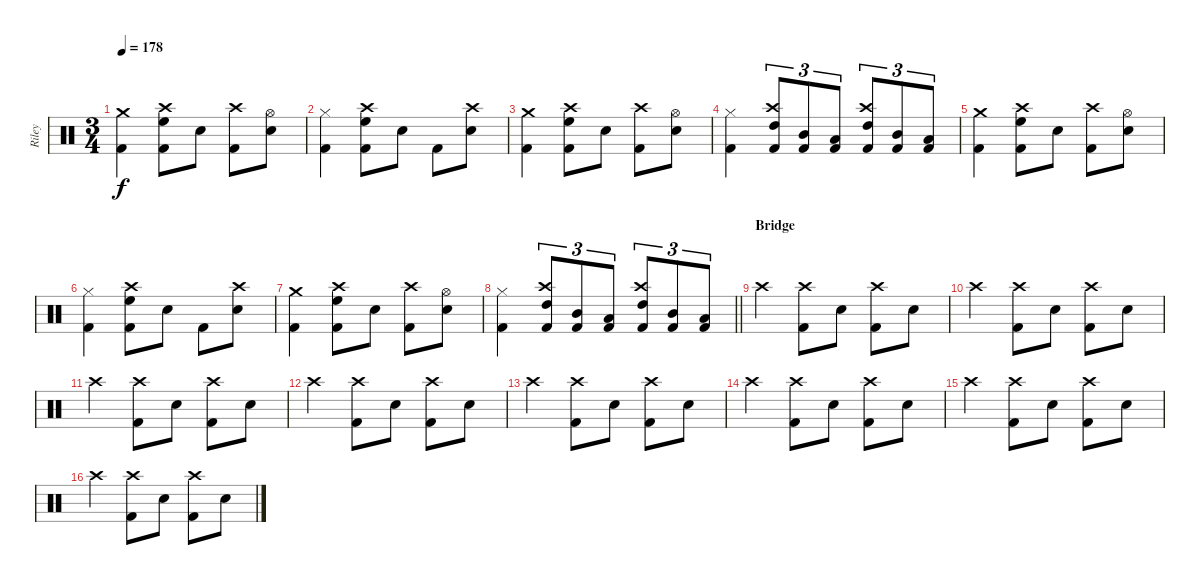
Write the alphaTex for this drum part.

\track ("Riley" "Riley") {instrument percussion}
\staff {score}
\articulation defaults
\ts (3 4)
\tempo 178
\clef neutral
\ks c
("Crash medium (hit)" "Kick (hit) 2").4{dy f} ("Crash high (hit)" "High Floor Tom (hit)" "Kick (hit) 2").8 "Snare (hit) 2".8 ("Crash high (hit)" "Kick (hit) 2").8 ("Hi-Hat (open)" "Snare (hit) 2").8 |
("Hi-Hat (closed)" "Kick (hit) 2").4 ("Crash high (hit)" "High Floor Tom (hit)" "Kick (hit) 2").8 "Snare (hit) 2".8 "Kick (hit) 2".8 ("Crash high (hit)" "Snare (hit) 2").8 |
("Crash medium (hit)" "Kick (hit) 2").4 ("Crash high (hit)" "High Floor Tom (hit)" "Kick (hit) 2").8 "Snare (hit) 2".8 ("Crash high (hit)" "Kick (hit) 2").8 ("Hi-Hat (open)" "Snare (hit) 2").8 |
("Hi-Hat (closed)" "Kick (hit) 2").4 ("Crash high (hit)" "High Tom (hit)" "Kick (hit) 2").8{tu (3 2)} ("Mid Tom (hit)" "Kick (hit) 2").8{tu (3 2)} ("Low Tom (hit)" "Kick (hit) 2").8{tu (3 2)} ("Crash high (hit)" "High Tom (hit)" "Kick (hit) 2").8{tu (3 2)} ("Mid Tom (hit)" "Kick (hit) 2").8{tu (3 2)} ("Low Tom (hit)" "Kick (hit) 2").8{tu (3 2)} |
("Crash medium (hit)" "Kick (hit) 2").4 ("Crash high (hit)" "High Floor Tom (hit)" "Kick (hit) 2").8 "Snare (hit) 2".8 ("Crash high (hit)" "Kick (hit) 2").8 ("Hi-Hat (open)" "Snare (hit) 2").8 |
("Hi-Hat (closed)" "Kick (hit) 2").4 ("Crash high (hit)" "High Floor Tom (hit)" "Kick (hit) 2").8 "Snare (hit) 2".8 "Kick (hit) 2".8 ("Crash high (hit)" "Snare (hit) 2").8 |
("Crash medium (hit)" "Kick (hit) 2").4 ("Crash high (hit)" "High Floor Tom (hit)" "Kick (hit) 2").8 "Snare (hit) 2".8 ("Crash high (hit)" "Kick (hit) 2").8 ("Hi-Hat (open)" "Snare (hit) 2").8 |
\barLineRight lightlight
("Hi-Hat (closed)" "Kick (hit) 2").4 ("Crash high (hit)" "High Tom (hit)" "Kick (hit) 2").8{tu (3 2)} ("Mid Tom (hit)" "Kick (hit) 2").8{tu (3 2)} ("Low Tom (hit)" "Kick (hit) 2").8{tu (3 2)} ("Crash high (hit)" "High Tom (hit)" "Kick (hit) 2").8{tu (3 2)} ("Mid Tom (hit)" "Kick (hit) 2").8{tu (3 2)} ("Low Tom (hit)" "Kick (hit) 2").8{tu (3 2)} |
\section ("" "Bridge")
"Crash high (hit)".4 ("Crash high (hit)" "Kick (hit) 2").8 "Snare (hit) 2".8 ("Crash high (hit)" "Kick (hit) 2").8 "Snare (hit) 2".8 |
"Crash high (hit)".4 ("Crash high (hit)" "Kick (hit) 2").8 "Snare (hit) 2".8 ("Crash high (hit)" "Kick (hit) 2").8 "Snare (hit) 2".8 |
"Crash high (hit)".4 ("Crash high (hit)" "Kick (hit) 2").8 "Snare (hit) 2".8 ("Crash high (hit)" "Kick (hit) 2").8 "Snare (hit) 2".8 |
"Crash high (hit)".4 ("Crash high (hit)" "Kick (hit) 2").8 "Snare (hit) 2".8 ("Crash high (hit)" "Kick (hit) 2").8 "Snare (hit) 2".8 |
"Crash high (hit)".4 ("Crash high (hit)" "Kick (hit) 2").8 "Snare (hit) 2".8 ("Crash high (hit)" "Kick (hit) 2").8 "Snare (hit) 2".8 |
"Crash high (hit)".4 ("Crash high (hit)" "Kick (hit) 2").8 "Snare (hit) 2".8 ("Crash high (hit)" "Kick (hit) 2").8 "Snare (hit) 2".8 |
"Crash high (hit)".4 ("Crash high (hit)" "Kick (hit) 2").8 "Snare (hit) 2".8 ("Crash high (hit)" "Kick (hit) 2").8 "Snare (hit) 2".8 |
"Crash high (hit)".4 ("Crash high (hit)" "Kick (hit) 2").8 "Snare (hit) 2".8 ("Crash high (hit)" "Kick (hit) 2").8 "Snare (hit) 2".8
